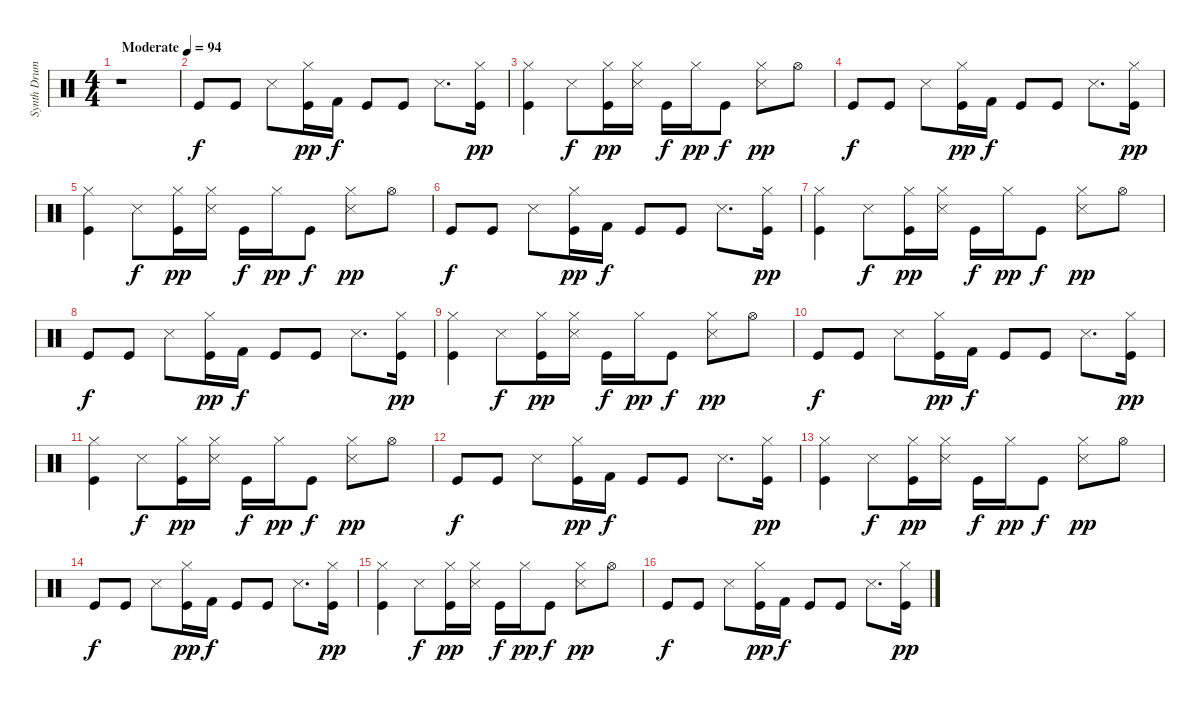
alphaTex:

\track ("Synth Drums" "Synth Drum") {instrument percussion}
\staff {score}
\articulation defaults
\ts (4 4)
\tempo (94 "Moderate")
\clef neutral
\ks c
r.1{dy f} |
"Kick (hit)".8 "Kick (hit)".8 "Snare (side stick) 3".8 ("Hi-Hat (closed)" "Kick (hit)").16{dy pp} "Kick (hit) 2".16{dy f} "Kick (hit)".8 "Kick (hit)".8 "Snare (side stick) 3".8{d} ("Hi-Hat (closed)" "Kick (hit)").16{dy pp} |
("Hi-Hat (closed)" "Kick (hit)").4 "Snare (side stick) 3".8{dy f} ("Hi-Hat (closed)" "Kick (hit)").16{dy pp} ("Hi-Hat (closed)" "Snare (side stick) 3").16 "Kick (hit)".16{dy f} "Hi-Hat (closed)".16{dy pp} "Kick (hit)".8{dy f} ("Hi-Hat (closed)" "Snare (side stick) 3").8{dy pp} "Hi-Hat (open)".8 |
"Kick (hit)".8{dy f} "Kick (hit)".8 "Snare (side stick) 3".8 ("Hi-Hat (closed)" "Kick (hit)").16{dy pp} "Kick (hit) 2".16{dy f} "Kick (hit)".8 "Kick (hit)".8 "Snare (side stick) 3".8{d} ("Hi-Hat (closed)" "Kick (hit)").16{dy pp} |
("Hi-Hat (closed)" "Kick (hit)").4 "Snare (side stick) 3".8{dy f} ("Hi-Hat (closed)" "Kick (hit)").16{dy pp} ("Hi-Hat (closed)" "Snare (side stick) 3").16 "Kick (hit)".16{dy f} "Hi-Hat (closed)".16{dy pp} "Kick (hit)".8{dy f} ("Hi-Hat (closed)" "Snare (side stick) 3").8{dy pp} "Hi-Hat (open)".8 |
"Kick (hit)".8{dy f} "Kick (hit)".8 "Snare (side stick) 3".8 ("Hi-Hat (closed)" "Kick (hit)").16{dy pp} "Kick (hit) 2".16{dy f} "Kick (hit)".8 "Kick (hit)".8 "Snare (side stick) 3".8{d} ("Hi-Hat (closed)" "Kick (hit)").16{dy pp} |
("Hi-Hat (closed)" "Kick (hit)").4 "Snare (side stick) 3".8{dy f} ("Hi-Hat (closed)" "Kick (hit)").16{dy pp} ("Hi-Hat (closed)" "Snare (side stick) 3").16 "Kick (hit)".16{dy f} "Hi-Hat (closed)".16{dy pp} "Kick (hit)".8{dy f} ("Hi-Hat (closed)" "Snare (side stick) 3").8{dy pp} "Hi-Hat (open)".8 |
"Kick (hit)".8{dy f} "Kick (hit)".8 "Snare (side stick) 3".8 ("Hi-Hat (closed)" "Kick (hit)").16{dy pp} "Kick (hit) 2".16{dy f} "Kick (hit)".8 "Kick (hit)".8 "Snare (side stick) 3".8{d} ("Hi-Hat (closed)" "Kick (hit)").16{dy pp} |
("Hi-Hat (closed)" "Kick (hit)").4 "Snare (side stick) 3".8{dy f} ("Hi-Hat (closed)" "Kick (hit)").16{dy pp} ("Hi-Hat (closed)" "Snare (side stick) 3").16 "Kick (hit)".16{dy f} "Hi-Hat (closed)".16{dy pp} "Kick (hit)".8{dy f} ("Hi-Hat (closed)" "Snare (side stick) 3").8{dy pp} "Hi-Hat (open)".8 |
"Kick (hit)".8{dy f} "Kick (hit)".8 "Snare (side stick) 3".8 ("Hi-Hat (closed)" "Kick (hit)").16{dy pp} "Kick (hit) 2".16{dy f} "Kick (hit)".8 "Kick (hit)".8 "Snare (side stick) 3".8{d} ("Hi-Hat (closed)" "Kick (hit)").16{dy pp} |
("Hi-Hat (closed)" "Kick (hit)").4 "Snare (side stick) 3".8{dy f} ("Hi-Hat (closed)" "Kick (hit)").16{dy pp} ("Hi-Hat (closed)" "Snare (side stick) 3").16 "Kick (hit)".16{dy f} "Hi-Hat (closed)".16{dy pp} "Kick (hit)".8{dy f} ("Hi-Hat (closed)" "Snare (side stick) 3").8{dy pp} "Hi-Hat (open)".8 |
"Kick (hit)".8{dy f} "Kick (hit)".8 "Snare (side stick) 3".8 ("Hi-Hat (closed)" "Kick (hit)").16{dy pp} "Kick (hit) 2".16{dy f} "Kick (hit)".8 "Kick (hit)".8 "Snare (side stick) 3".8{d} ("Hi-Hat (closed)" "Kick (hit)").16{dy pp} |
("Hi-Hat (closed)" "Kick (hit)").4 "Snare (side stick) 3".8{dy f} ("Hi-Hat (closed)" "Kick (hit)").16{dy pp} ("Hi-Hat (closed)" "Snare (side stick) 3").16 "Kick (hit)".16{dy f} "Hi-Hat (closed)".16{dy pp} "Kick (hit)".8{dy f} ("Hi-Hat (closed)" "Snare (side stick) 3").8{dy pp} "Hi-Hat (open)".8 |
"Kick (hit)".8{dy f} "Kick (hit)".8 "Snare (side stick) 3".8 ("Hi-Hat (closed)" "Kick (hit)").16{dy pp} "Kick (hit) 2".16{dy f} "Kick (hit)".8 "Kick (hit)".8 "Snare (side stick) 3".8{d} ("Hi-Hat (closed)" "Kick (hit)").16{dy pp} |
("Hi-Hat (closed)" "Kick (hit)").4 "Snare (side stick) 3".8{dy f} ("Hi-Hat (closed)" "Kick (hit)").16{dy pp} ("Hi-Hat (closed)" "Snare (side stick) 3").16 "Kick (hit)".16{dy f} "Hi-Hat (closed)".16{dy pp} "Kick (hit)".8{dy f} ("Hi-Hat (closed)" "Snare (side stick) 3").8{dy pp} "Hi-Hat (open)".8 |
"Kick (hit)".8{dy f} "Kick (hit)".8 "Snare (side stick) 3".8 ("Hi-Hat (closed)" "Kick (hit)").16{dy pp} "Kick (hit) 2".16{dy f} "Kick (hit)".8 "Kick (hit)".8 "Snare (side stick) 3".8{d} ("Hi-Hat (closed)" "Kick (hit)").16{dy pp}
